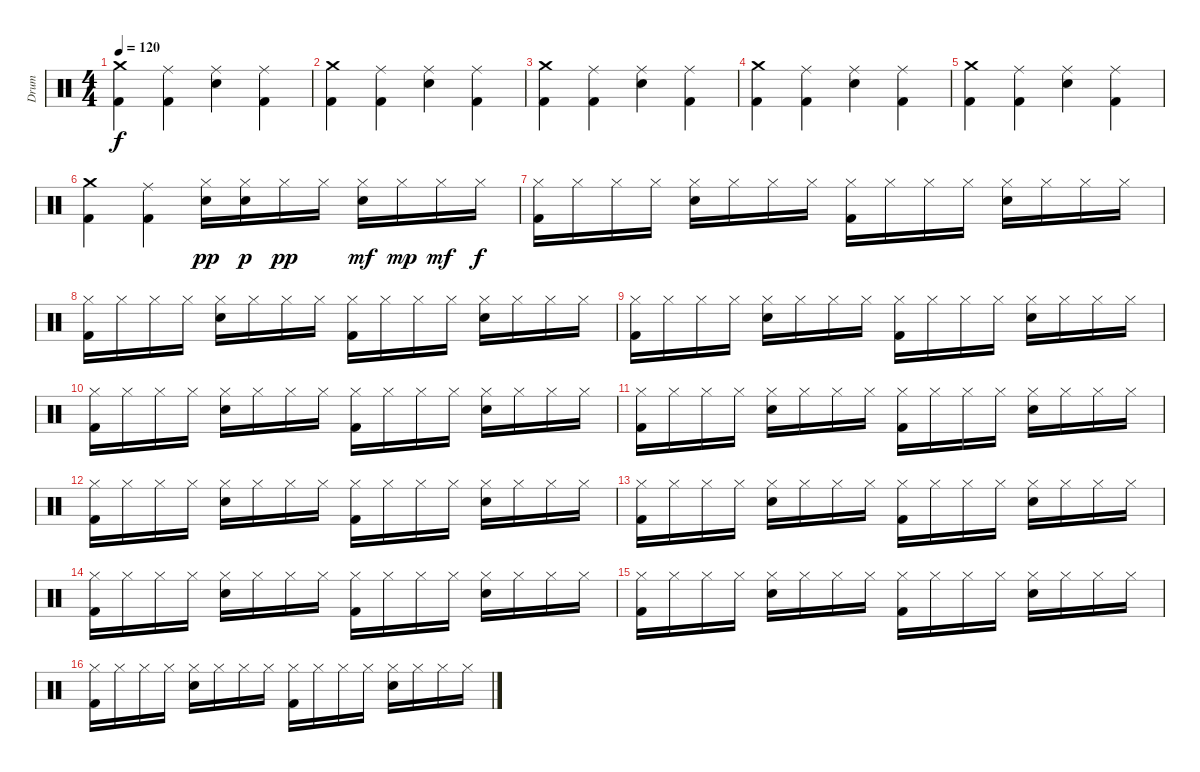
\track ("Drum" "Drum") {instrument percussion}
\staff {score}
\articulation defaults
\ts (4 4)
\tempo 120
\clef neutral
\ks c
("Crash medium (hit)" "Kick (hit) 2").4{dy f} ("Ride (middle)" "Kick (hit) 2").4 ("Ride (middle)" "Snare (hit) 2").4 ("Ride (middle)" "Kick (hit) 2").4 |
("Crash medium (hit)" "Kick (hit) 2").4 ("Ride (middle)" "Kick (hit) 2").4 ("Ride (middle)" "Snare (hit) 2").4 ("Ride (middle)" "Kick (hit) 2").4 |
("Crash medium (hit)" "Kick (hit) 2").4 ("Ride (middle)" "Kick (hit) 2").4 ("Ride (middle)" "Snare (hit) 2").4 ("Ride (middle)" "Kick (hit) 2").4 |
("Crash medium (hit)" "Kick (hit) 2").4 ("Ride (middle)" "Kick (hit) 2").4 ("Ride (middle)" "Snare (hit) 2").4 ("Ride (middle)" "Kick (hit) 2").4 |
("Crash medium (hit)" "Kick (hit) 2").4 ("Ride (middle)" "Kick (hit) 2").4 ("Ride (middle)" "Snare (hit) 2").4 ("Ride (middle)" "Kick (hit) 2").4 |
("Crash medium (hit)" "Kick (hit) 2").4 ("Ride (middle)" "Kick (hit) 2").4 ("Hi-Hat (closed)" "Snare (hit) 2").16{dy pp} ("Hi-Hat (closed)" "Snare (hit) 2").16{dy p} "Hi-Hat (closed)".16{dy pp} "Hi-Hat (closed)".16 ("Hi-Hat (closed)" "Snare (hit) 2").16{dy mf} "Hi-Hat (closed)".16{dy mp} "Hi-Hat (closed)".16{dy mf} "Hi-Hat (closed)".16{dy f} |
("Hi-Hat (closed)" "Kick (hit) 2").16 "Hi-Hat (closed)".16 "Hi-Hat (closed)".16 "Hi-Hat (closed)".16 ("Hi-Hat (closed)" "Snare (hit) 2").16 "Hi-Hat (closed)".16 "Hi-Hat (closed)".16 "Hi-Hat (closed)".16 ("Hi-Hat (closed)" "Kick (hit) 2").16 "Hi-Hat (closed)".16 "Hi-Hat (closed)".16 "Hi-Hat (closed)".16 ("Hi-Hat (closed)" "Snare (hit) 2").16 "Hi-Hat (closed)".16 "Hi-Hat (closed)".16 "Hi-Hat (closed)".16 |
("Hi-Hat (closed)" "Kick (hit) 2").16 "Hi-Hat (closed)".16 "Hi-Hat (closed)".16 "Hi-Hat (closed)".16 ("Hi-Hat (closed)" "Snare (hit) 2").16 "Hi-Hat (closed)".16 "Hi-Hat (closed)".16 "Hi-Hat (closed)".16 ("Hi-Hat (closed)" "Kick (hit) 2").16 "Hi-Hat (closed)".16 "Hi-Hat (closed)".16 "Hi-Hat (closed)".16 ("Hi-Hat (closed)" "Snare (hit) 2").16 "Hi-Hat (closed)".16 "Hi-Hat (closed)".16 "Hi-Hat (closed)".16 |
("Hi-Hat (closed)" "Kick (hit) 2").16 "Hi-Hat (closed)".16 "Hi-Hat (closed)".16 "Hi-Hat (closed)".16 ("Hi-Hat (closed)" "Snare (hit) 2").16 "Hi-Hat (closed)".16 "Hi-Hat (closed)".16 "Hi-Hat (closed)".16 ("Hi-Hat (closed)" "Kick (hit) 2").16 "Hi-Hat (closed)".16 "Hi-Hat (closed)".16 "Hi-Hat (closed)".16 ("Hi-Hat (closed)" "Snare (hit) 2").16 "Hi-Hat (closed)".16 "Hi-Hat (closed)".16 "Hi-Hat (closed)".16 |
("Hi-Hat (closed)" "Kick (hit) 2").16 "Hi-Hat (closed)".16 "Hi-Hat (closed)".16 "Hi-Hat (closed)".16 ("Hi-Hat (closed)" "Snare (hit) 2").16 "Hi-Hat (closed)".16 "Hi-Hat (closed)".16 "Hi-Hat (closed)".16 ("Hi-Hat (closed)" "Kick (hit) 2").16 "Hi-Hat (closed)".16 "Hi-Hat (closed)".16 "Hi-Hat (closed)".16 ("Hi-Hat (closed)" "Snare (hit) 2").16 "Hi-Hat (closed)".16 "Hi-Hat (closed)".16 "Hi-Hat (closed)".16 |
("Hi-Hat (closed)" "Kick (hit) 2").16 "Hi-Hat (closed)".16 "Hi-Hat (closed)".16 "Hi-Hat (closed)".16 ("Hi-Hat (closed)" "Snare (hit) 2").16 "Hi-Hat (closed)".16 "Hi-Hat (closed)".16 "Hi-Hat (closed)".16 ("Hi-Hat (closed)" "Kick (hit) 2").16 "Hi-Hat (closed)".16 "Hi-Hat (closed)".16 "Hi-Hat (closed)".16 ("Hi-Hat (closed)" "Snare (hit) 2").16 "Hi-Hat (closed)".16 "Hi-Hat (closed)".16 "Hi-Hat (closed)".16 |
("Hi-Hat (closed)" "Kick (hit) 2").16 "Hi-Hat (closed)".16 "Hi-Hat (closed)".16 "Hi-Hat (closed)".16 ("Hi-Hat (closed)" "Snare (hit) 2").16 "Hi-Hat (closed)".16 "Hi-Hat (closed)".16 "Hi-Hat (closed)".16 ("Hi-Hat (closed)" "Kick (hit) 2").16 "Hi-Hat (closed)".16 "Hi-Hat (closed)".16 "Hi-Hat (closed)".16 ("Hi-Hat (closed)" "Snare (hit) 2").16 "Hi-Hat (closed)".16 "Hi-Hat (closed)".16 "Hi-Hat (closed)".16 |
("Hi-Hat (closed)" "Kick (hit) 2").16 "Hi-Hat (closed)".16 "Hi-Hat (closed)".16 "Hi-Hat (closed)".16 ("Hi-Hat (closed)" "Snare (hit) 2").16 "Hi-Hat (closed)".16 "Hi-Hat (closed)".16 "Hi-Hat (closed)".16 ("Hi-Hat (closed)" "Kick (hit) 2").16 "Hi-Hat (closed)".16 "Hi-Hat (closed)".16 "Hi-Hat (closed)".16 ("Hi-Hat (closed)" "Snare (hit) 2").16 "Hi-Hat (closed)".16 "Hi-Hat (closed)".16 "Hi-Hat (closed)".16 |
("Hi-Hat (closed)" "Kick (hit) 2").16 "Hi-Hat (closed)".16 "Hi-Hat (closed)".16 "Hi-Hat (closed)".16 ("Hi-Hat (closed)" "Snare (hit) 2").16 "Hi-Hat (closed)".16 "Hi-Hat (closed)".16 "Hi-Hat (closed)".16 ("Hi-Hat (closed)" "Kick (hit) 2").16 "Hi-Hat (closed)".16 "Hi-Hat (closed)".16 "Hi-Hat (closed)".16 ("Hi-Hat (closed)" "Snare (hit) 2").16 "Hi-Hat (closed)".16 "Hi-Hat (closed)".16 "Hi-Hat (closed)".16 |
("Hi-Hat (closed)" "Kick (hit) 2").16 "Hi-Hat (closed)".16 "Hi-Hat (closed)".16 "Hi-Hat (closed)".16 ("Hi-Hat (closed)" "Snare (hit) 2").16 "Hi-Hat (closed)".16 "Hi-Hat (closed)".16 "Hi-Hat (closed)".16 ("Hi-Hat (closed)" "Kick (hit) 2").16 "Hi-Hat (closed)".16 "Hi-Hat (closed)".16 "Hi-Hat (closed)".16 ("Hi-Hat (closed)" "Snare (hit) 2").16 "Hi-Hat (closed)".16 "Hi-Hat (closed)".16 "Hi-Hat (closed)".16 |
("Hi-Hat (closed)" "Kick (hit) 2").16 "Hi-Hat (closed)".16 "Hi-Hat (closed)".16 "Hi-Hat (closed)".16 ("Hi-Hat (closed)" "Snare (hit) 2").16 "Hi-Hat (closed)".16 "Hi-Hat (closed)".16 "Hi-Hat (closed)".16 ("Hi-Hat (closed)" "Kick (hit) 2").16 "Hi-Hat (closed)".16 "Hi-Hat (closed)".16 "Hi-Hat (closed)".16 ("Hi-Hat (closed)" "Snare (hit) 2").16 "Hi-Hat (closed)".16 "Hi-Hat (closed)".16 "Hi-Hat (closed)".16
